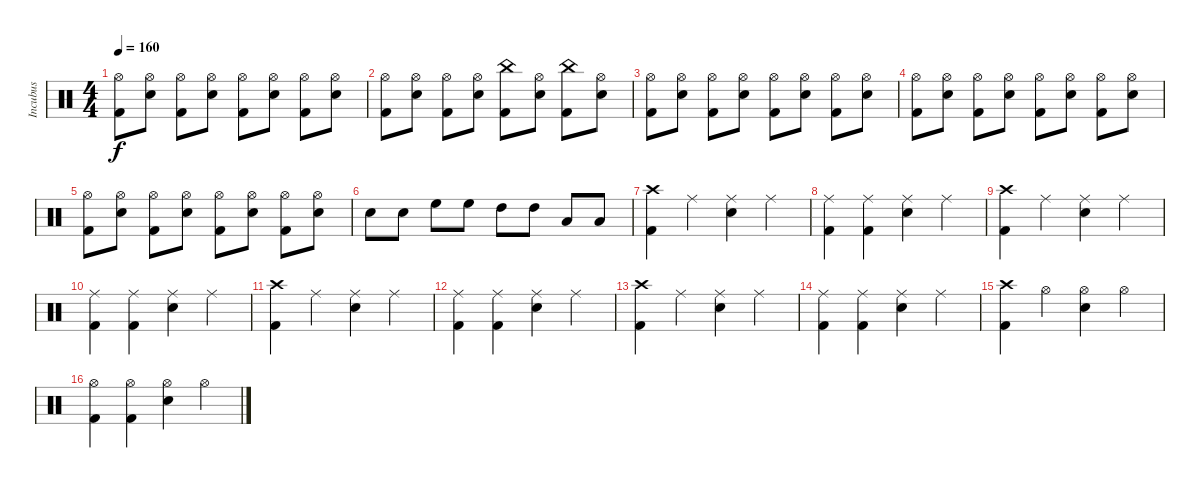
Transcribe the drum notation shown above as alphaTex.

\track ("Incubus" "Incubus") {instrument percussion}
\staff {score}
\articulation defaults
\ts (4 4)
\tempo 160
\clef neutral
\ks c
("Hi-Hat (open)" "Kick (hit) 2").8{dy f} ("Hi-Hat (open)" "Snare (hit) 2").8 ("Hi-Hat (open)" "Kick (hit) 2").8 ("Hi-Hat (open)" "Snare (hit) 2").8 ("Hi-Hat (open)" "Kick (hit) 2").8 ("Hi-Hat (open)" "Snare (hit) 2").8 ("Hi-Hat (open)" "Kick (hit) 2").8 ("Hi-Hat (open)" "Snare (hit) 2").8 |
("Hi-Hat (open)" "Kick (hit) 2").8 ("Hi-Hat (open)" "Snare (hit) 2").8 ("Hi-Hat (open)" "Kick (hit) 2").8 ("Hi-Hat (open)" "Snare (hit) 2").8 ("China (hit)" "Kick (hit) 2").8 ("Hi-Hat (open)" "Snare (hit) 2").8 ("China (hit)" "Kick (hit) 2").8 ("Hi-Hat (open)" "Snare (hit) 2").8 |
("Hi-Hat (open)" "Kick (hit) 2").8 ("Hi-Hat (open)" "Snare (hit) 2").8 ("Hi-Hat (open)" "Kick (hit) 2").8 ("Hi-Hat (open)" "Snare (hit) 2").8 ("Hi-Hat (open)" "Kick (hit) 2").8 ("Hi-Hat (open)" "Snare (hit) 2").8 ("Hi-Hat (open)" "Kick (hit) 2").8 ("Hi-Hat (open)" "Snare (hit) 2").8 |
("Hi-Hat (open)" "Kick (hit) 2").8 ("Hi-Hat (open)" "Snare (hit) 2").8 ("Hi-Hat (open)" "Kick (hit) 2").8 ("Hi-Hat (open)" "Snare (hit) 2").8 ("Hi-Hat (open)" "Kick (hit) 2").8 ("Hi-Hat (open)" "Snare (hit) 2").8 ("Hi-Hat (open)" "Kick (hit) 2").8 ("Hi-Hat (open)" "Snare (hit) 2").8 |
("Hi-Hat (open)" "Kick (hit) 2").8 ("Hi-Hat (open)" "Snare (hit) 2").8 ("Hi-Hat (open)" "Kick (hit) 2").8 ("Hi-Hat (open)" "Snare (hit) 2").8 ("Hi-Hat (open)" "Kick (hit) 2").8 ("Hi-Hat (open)" "Snare (hit) 2").8 ("Hi-Hat (open)" "Kick (hit) 2").8 ("Hi-Hat (open)" "Snare (hit) 2").8 |
"Snare (hit) 2".8 "Snare (hit) 2".8 "High Floor Tom (hit)".8 "High Floor Tom (hit)".8 "High Tom (hit)".8 "High Tom (hit)".8 "Low Tom (hit)".8 "Low Tom (hit)".8 |
("Crash high (hit)" "Kick (hit) 2").4 "Ride (middle)".4 ("Ride (middle)" "Snare (hit) 2").4 "Ride (middle)".4 |
("Ride (middle)" "Kick (hit) 2").4 ("Ride (middle)" "Kick (hit) 2").4 ("Ride (middle)" "Snare (hit) 2").4 "Ride (middle)".4 |
("Crash high (hit)" "Kick (hit) 2").4 "Ride (middle)".4 ("Ride (middle)" "Snare (hit) 2").4 "Ride (middle)".4 |
("Ride (middle)" "Kick (hit) 2").4 ("Ride (middle)" "Kick (hit) 2").4 ("Ride (middle)" "Snare (hit) 2").4 "Ride (middle)".4 |
("Crash high (hit)" "Kick (hit) 2").4 "Ride (middle)".4 ("Ride (middle)" "Snare (hit) 2").4 "Ride (middle)".4 |
("Ride (middle)" "Kick (hit) 2").4 ("Ride (middle)" "Kick (hit) 2").4 ("Ride (middle)" "Snare (hit) 2").4 "Ride (middle)".4 |
("Crash high (hit)" "Kick (hit) 2").4 "Ride (middle)".4 ("Ride (middle)" "Snare (hit) 2").4 "Ride (middle)".4 |
("Ride (middle)" "Kick (hit) 2").4 ("Ride (middle)" "Kick (hit) 2").4 ("Ride (middle)" "Snare (hit) 2").4 "Ride (middle)".4 |
("Crash high (hit)" "Kick (hit) 2").4 "Hi-Hat (open)".4 ("Hi-Hat (open)" "Snare (hit) 2").4 "Hi-Hat (open)".4 |
("Hi-Hat (open)" "Kick (hit) 2").4 ("Hi-Hat (open)" "Kick (hit) 2").4 ("Hi-Hat (open)" "Snare (hit) 2").4 "Hi-Hat (open)".4
